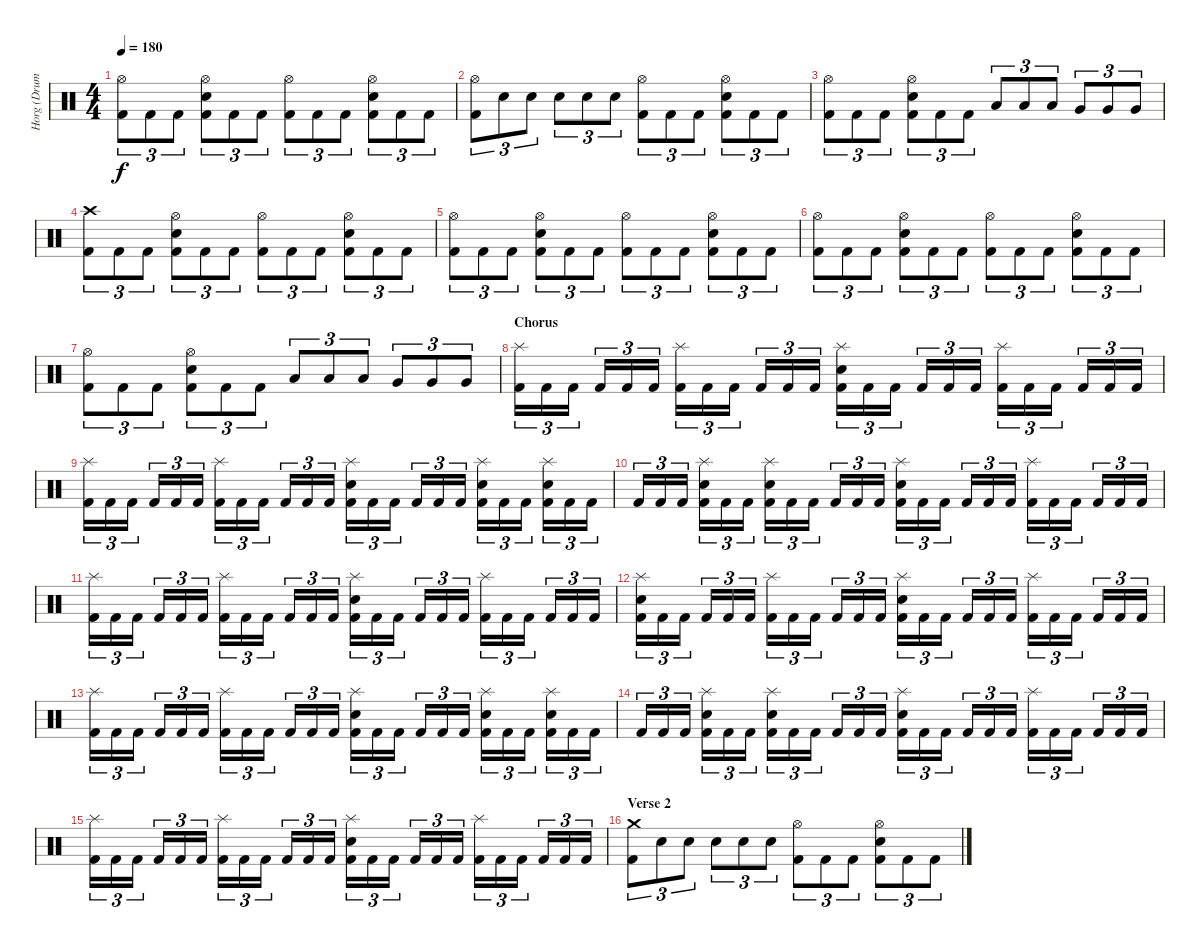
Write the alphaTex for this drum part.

\track ("Horg (Drums)" "Horg (Drum") {instrument percussion}
\staff {score}
\articulation defaults
\ts (4 4)
\tempo 180
\clef neutral
\ks c
("Hi-Hat (open)" "Kick (hit) 2").8{tu (3 2) dy f} "Kick (hit) 2".8{tu (3 2)} "Kick (hit) 2".8{tu (3 2)} ("Hi-Hat (open)" "Electric Snare (hit)" "Kick (hit) 2").8{tu (3 2)} "Kick (hit) 2".8{tu (3 2)} "Kick (hit) 2".8{tu (3 2)} ("Hi-Hat (open)" "Kick (hit) 2").8{tu (3 2)} "Kick (hit) 2".8{tu (3 2)} "Kick (hit) 2".8{tu (3 2)} ("Hi-Hat (open)" "Electric Snare (hit)" "Kick (hit) 2").8{tu (3 2)} "Kick (hit) 2".8{tu (3 2)} "Kick (hit) 2".8{tu (3 2)} |
("Hi-Hat (open)" "Kick (hit) 2").8{tu (3 2)} "Electric Snare (hit)".8{tu (3 2)} "Electric Snare (hit)".8{tu (3 2)} "Electric Snare (hit)".8{tu (3 2)} "Electric Snare (hit)".8{tu (3 2)} "Electric Snare (hit)".8{tu (3 2)} ("Hi-Hat (open)" "Kick (hit) 2").8{tu (3 2)} "Kick (hit) 2".8{tu (3 2)} "Kick (hit) 2".8{tu (3 2)} ("Hi-Hat (open)" "Electric Snare (hit)" "Kick (hit) 2").8{tu (3 2)} "Kick (hit) 2".8{tu (3 2)} "Kick (hit) 2".8{tu (3 2)} |
("Hi-Hat (open)" "Kick (hit) 2").8{tu (3 2)} "Kick (hit) 2".8{tu (3 2)} "Kick (hit) 2".8{tu (3 2)} ("Hi-Hat (open)" "Electric Snare (hit)" "Kick (hit) 2").8{tu (3 2)} "Kick (hit) 2".8{tu (3 2)} "Kick (hit) 2".8{tu (3 2)} "Low Tom (hit)".8{tu (3 2)} "Low Tom (hit)".8{tu (3 2)} "Low Tom (hit)".8{tu (3 2)} "Very Low Tom (hit)".8{tu (3 2)} "Very Low Tom (hit)".8{tu (3 2)} "Very Low Tom (hit)".8{tu (3 2)} |
("Crash high (hit)" "Kick (hit) 2").8{tu (3 2)} "Kick (hit) 2".8{tu (3 2)} "Kick (hit) 2".8{tu (3 2)} ("Hi-Hat (open)" "Electric Snare (hit)" "Kick (hit) 2").8{tu (3 2)} "Kick (hit) 2".8{tu (3 2)} "Kick (hit) 2".8{tu (3 2)} ("Hi-Hat (open)" "Kick (hit) 2").8{tu (3 2)} "Kick (hit) 2".8{tu (3 2)} "Kick (hit) 2".8{tu (3 2)} ("Hi-Hat (open)" "Electric Snare (hit)" "Kick (hit) 2").8{tu (3 2)} "Kick (hit) 2".8{tu (3 2)} "Kick (hit) 2".8{tu (3 2)} |
("Hi-Hat (open)" "Kick (hit) 2").8{tu (3 2)} "Kick (hit) 2".8{tu (3 2)} "Kick (hit) 2".8{tu (3 2)} ("Hi-Hat (open)" "Electric Snare (hit)" "Kick (hit) 2").8{tu (3 2)} "Kick (hit) 2".8{tu (3 2)} "Kick (hit) 2".8{tu (3 2)} ("Hi-Hat (open)" "Kick (hit) 2").8{tu (3 2)} "Kick (hit) 2".8{tu (3 2)} "Kick (hit) 2".8{tu (3 2)} ("Hi-Hat (open)" "Electric Snare (hit)" "Kick (hit) 2").8{tu (3 2)} "Kick (hit) 2".8{tu (3 2)} "Kick (hit) 2".8{tu (3 2)} |
("Hi-Hat (open)" "Kick (hit) 2").8{tu (3 2)} "Kick (hit) 2".8{tu (3 2)} "Kick (hit) 2".8{tu (3 2)} ("Hi-Hat (open)" "Electric Snare (hit)" "Kick (hit) 2").8{tu (3 2)} "Kick (hit) 2".8{tu (3 2)} "Kick (hit) 2".8{tu (3 2)} ("Hi-Hat (open)" "Kick (hit) 2").8{tu (3 2)} "Kick (hit) 2".8{tu (3 2)} "Kick (hit) 2".8{tu (3 2)} ("Hi-Hat (open)" "Electric Snare (hit)" "Kick (hit) 2").8{tu (3 2)} "Kick (hit) 2".8{tu (3 2)} "Kick (hit) 2".8{tu (3 2)} |
("Hi-Hat (open)" "Kick (hit) 2").8{tu (3 2)} "Kick (hit) 2".8{tu (3 2)} "Kick (hit) 2".8{tu (3 2)} ("Hi-Hat (open)" "Electric Snare (hit)" "Kick (hit) 2").8{tu (3 2)} "Kick (hit) 2".8{tu (3 2)} "Kick (hit) 2".8{tu (3 2)} "Low Tom (hit)".8{tu (3 2)} "Low Tom (hit)".8{tu (3 2)} "Low Tom (hit)".8{tu (3 2)} "Very Low Tom (hit)".8{tu (3 2)} "Very Low Tom (hit)".8{tu (3 2)} "Very Low Tom (hit)".8{tu (3 2)} |
\section ("" "Chorus")
("Splash (hit)" "Kick (hit) 2").16{tu (3 2)} "Kick (hit) 2".16{tu (3 2)} "Kick (hit) 2".16{tu (3 2)} "Kick (hit) 2".16{tu (3 2)} "Kick (hit) 2".16{tu (3 2)} "Kick (hit) 2".16{tu (3 2)} ("Splash (hit)" "Kick (hit) 2").16{tu (3 2)} "Kick (hit) 2".16{tu (3 2)} "Kick (hit) 2".16{tu (3 2)} "Kick (hit) 2".16{tu (3 2)} "Kick (hit) 2".16{tu (3 2)} "Kick (hit) 2".16{tu (3 2)} ("Splash (hit)" "Electric Snare (hit)" "Kick (hit) 2").16{tu (3 2)} "Kick (hit) 2".16{tu (3 2)} "Kick (hit) 2".16{tu (3 2)} "Kick (hit) 2".16{tu (3 2)} "Kick (hit) 2".16{tu (3 2)} "Kick (hit) 2".16{tu (3 2)} ("Splash (hit)" "Kick (hit) 2").16{tu (3 2)} "Kick (hit) 2".16{tu (3 2)} "Kick (hit) 2".16{tu (3 2)} "Kick (hit) 2".16{tu (3 2)} "Kick (hit) 2".16{tu (3 2)} "Kick (hit) 2".16{tu (3 2)} |
("Splash (hit)" "Kick (hit) 2").16{tu (3 2)} "Kick (hit) 2".16{tu (3 2)} "Kick (hit) 2".16{tu (3 2)} "Kick (hit) 2".16{tu (3 2)} "Kick (hit) 2".16{tu (3 2)} "Kick (hit) 2".16{tu (3 2)} ("Splash (hit)" "Kick (hit) 2").16{tu (3 2)} "Kick (hit) 2".16{tu (3 2)} "Kick (hit) 2".16{tu (3 2)} "Kick (hit) 2".16{tu (3 2)} "Kick (hit) 2".16{tu (3 2)} "Kick (hit) 2".16{tu (3 2)} ("Splash (hit)" "Electric Snare (hit)" "Kick (hit) 2").16{tu (3 2)} "Kick (hit) 2".16{tu (3 2)} "Kick (hit) 2".16{tu (3 2)} "Kick (hit) 2".16{tu (3 2)} "Kick (hit) 2".16{tu (3 2)} "Kick (hit) 2".16{tu (3 2)} ("Splash (hit)" "Electric Snare (hit)" "Kick (hit) 2").16{tu (3 2)} "Kick (hit) 2".16{tu (3 2)} "Kick (hit) 2".16{tu (3 2)} ("Splash (hit)" "Electric Snare (hit)" "Kick (hit) 2").16{tu (3 2)} "Kick (hit) 2".16{tu (3 2)} "Kick (hit) 2".16{tu (3 2)} |
"Kick (hit) 2".16{tu (3 2)} "Kick (hit) 2".16{tu (3 2)} "Kick (hit) 2".16{tu (3 2)} ("Splash (hit)" "Electric Snare (hit)" "Kick (hit) 2").16{tu (3 2)} "Kick (hit) 2".16{tu (3 2)} "Kick (hit) 2".16{tu (3 2)} ("Splash (hit)" "Electric Snare (hit)" "Kick (hit) 2").16{tu (3 2)} "Kick (hit) 2".16{tu (3 2)} "Kick (hit) 2".16{tu (3 2)} "Kick (hit) 2".16{tu (3 2)} "Kick (hit) 2".16{tu (3 2)} "Kick (hit) 2".16{tu (3 2)} ("Splash (hit)" "Electric Snare (hit)" "Kick (hit) 2").16{tu (3 2)} "Kick (hit) 2".16{tu (3 2)} "Kick (hit) 2".16{tu (3 2)} "Kick (hit) 2".16{tu (3 2)} "Kick (hit) 2".16{tu (3 2)} "Kick (hit) 2".16{tu (3 2)} ("Splash (hit)" "Kick (hit) 2").16{tu (3 2)} "Kick (hit) 2".16{tu (3 2)} "Kick (hit) 2".16{tu (3 2)} "Kick (hit) 2".16{tu (3 2)} "Kick (hit) 2".16{tu (3 2)} "Kick (hit) 2".16{tu (3 2)} |
("Splash (hit)" "Kick (hit) 2").16{tu (3 2)} "Kick (hit) 2".16{tu (3 2)} "Kick (hit) 2".16{tu (3 2)} "Kick (hit) 2".16{tu (3 2)} "Kick (hit) 2".16{tu (3 2)} "Kick (hit) 2".16{tu (3 2)} ("Splash (hit)" "Kick (hit) 2").16{tu (3 2)} "Kick (hit) 2".16{tu (3 2)} "Kick (hit) 2".16{tu (3 2)} "Kick (hit) 2".16{tu (3 2)} "Kick (hit) 2".16{tu (3 2)} "Kick (hit) 2".16{tu (3 2)} ("Splash (hit)" "Electric Snare (hit)" "Kick (hit) 2").16{tu (3 2)} "Kick (hit) 2".16{tu (3 2)} "Kick (hit) 2".16{tu (3 2)} "Kick (hit) 2".16{tu (3 2)} "Kick (hit) 2".16{tu (3 2)} "Kick (hit) 2".16{tu (3 2)} ("Splash (hit)" "Kick (hit) 2").16{tu (3 2)} "Kick (hit) 2".16{tu (3 2)} "Kick (hit) 2".16{tu (3 2)} "Kick (hit) 2".16{tu (3 2)} "Kick (hit) 2".16{tu (3 2)} "Kick (hit) 2".16{tu (3 2)} |
("Splash (hit)" "Electric Snare (hit)" "Kick (hit) 2").16{tu (3 2)} "Kick (hit) 2".16{tu (3 2)} "Kick (hit) 2".16{tu (3 2)} "Kick (hit) 2".16{tu (3 2)} "Kick (hit) 2".16{tu (3 2)} "Kick (hit) 2".16{tu (3 2)} ("Splash (hit)" "Kick (hit) 2").16{tu (3 2)} "Kick (hit) 2".16{tu (3 2)} "Kick (hit) 2".16{tu (3 2)} "Kick (hit) 2".16{tu (3 2)} "Kick (hit) 2".16{tu (3 2)} "Kick (hit) 2".16{tu (3 2)} ("Splash (hit)" "Electric Snare (hit)" "Kick (hit) 2").16{tu (3 2)} "Kick (hit) 2".16{tu (3 2)} "Kick (hit) 2".16{tu (3 2)} "Kick (hit) 2".16{tu (3 2)} "Kick (hit) 2".16{tu (3 2)} "Kick (hit) 2".16{tu (3 2)} ("Splash (hit)" "Kick (hit) 2").16{tu (3 2)} "Kick (hit) 2".16{tu (3 2)} "Kick (hit) 2".16{tu (3 2)} "Kick (hit) 2".16{tu (3 2)} "Kick (hit) 2".16{tu (3 2)} "Kick (hit) 2".16{tu (3 2)} |
("Splash (hit)" "Kick (hit) 2").16{tu (3 2)} "Kick (hit) 2".16{tu (3 2)} "Kick (hit) 2".16{tu (3 2)} "Kick (hit) 2".16{tu (3 2)} "Kick (hit) 2".16{tu (3 2)} "Kick (hit) 2".16{tu (3 2)} ("Splash (hit)" "Kick (hit) 2").16{tu (3 2)} "Kick (hit) 2".16{tu (3 2)} "Kick (hit) 2".16{tu (3 2)} "Kick (hit) 2".16{tu (3 2)} "Kick (hit) 2".16{tu (3 2)} "Kick (hit) 2".16{tu (3 2)} ("Splash (hit)" "Electric Snare (hit)" "Kick (hit) 2").16{tu (3 2)} "Kick (hit) 2".16{tu (3 2)} "Kick (hit) 2".16{tu (3 2)} "Kick (hit) 2".16{tu (3 2)} "Kick (hit) 2".16{tu (3 2)} "Kick (hit) 2".16{tu (3 2)} ("Splash (hit)" "Electric Snare (hit)" "Kick (hit) 2").16{tu (3 2)} "Kick (hit) 2".16{tu (3 2)} "Kick (hit) 2".16{tu (3 2)} ("Splash (hit)" "Electric Snare (hit)" "Kick (hit) 2").16{tu (3 2)} "Kick (hit) 2".16{tu (3 2)} "Kick (hit) 2".16{tu (3 2)} |
"Kick (hit) 2".16{tu (3 2)} "Kick (hit) 2".16{tu (3 2)} "Kick (hit) 2".16{tu (3 2)} ("Splash (hit)" "Electric Snare (hit)" "Kick (hit) 2").16{tu (3 2)} "Kick (hit) 2".16{tu (3 2)} "Kick (hit) 2".16{tu (3 2)} ("Splash (hit)" "Electric Snare (hit)" "Kick (hit) 2").16{tu (3 2)} "Kick (hit) 2".16{tu (3 2)} "Kick (hit) 2".16{tu (3 2)} "Kick (hit) 2".16{tu (3 2)} "Kick (hit) 2".16{tu (3 2)} "Kick (hit) 2".16{tu (3 2)} ("Splash (hit)" "Electric Snare (hit)" "Kick (hit) 2").16{tu (3 2)} "Kick (hit) 2".16{tu (3 2)} "Kick (hit) 2".16{tu (3 2)} "Kick (hit) 2".16{tu (3 2)} "Kick (hit) 2".16{tu (3 2)} "Kick (hit) 2".16{tu (3 2)} ("Splash (hit)" "Kick (hit) 2").16{tu (3 2)} "Kick (hit) 2".16{tu (3 2)} "Kick (hit) 2".16{tu (3 2)} "Kick (hit) 2".16{tu (3 2)} "Kick (hit) 2".16{tu (3 2)} "Kick (hit) 2".16{tu (3 2)} |
("Splash (hit)" "Kick (hit) 2").16{tu (3 2)} "Kick (hit) 2".16{tu (3 2)} "Kick (hit) 2".16{tu (3 2)} "Kick (hit) 2".16{tu (3 2)} "Kick (hit) 2".16{tu (3 2)} "Kick (hit) 2".16{tu (3 2)} ("Splash (hit)" "Kick (hit) 2").16{tu (3 2)} "Kick (hit) 2".16{tu (3 2)} "Kick (hit) 2".16{tu (3 2)} "Kick (hit) 2".16{tu (3 2)} "Kick (hit) 2".16{tu (3 2)} "Kick (hit) 2".16{tu (3 2)} ("Splash (hit)" "Electric Snare (hit)" "Kick (hit) 2").16{tu (3 2)} "Kick (hit) 2".16{tu (3 2)} "Kick (hit) 2".16{tu (3 2)} "Kick (hit) 2".16{tu (3 2)} "Kick (hit) 2".16{tu (3 2)} "Kick (hit) 2".16{tu (3 2)} ("Splash (hit)" "Kick (hit) 2").16{tu (3 2)} "Kick (hit) 2".16{tu (3 2)} "Kick (hit) 2".16{tu (3 2)} "Kick (hit) 2".16{tu (3 2)} "Kick (hit) 2".16{tu (3 2)} "Kick (hit) 2".16{tu (3 2)} |
\section ("" "Verse 2")
("Crash medium (hit)" "Kick (hit) 2").8{tu (3 2)} "Electric Snare (hit)".8{tu (3 2)} "Electric Snare (hit)".8{tu (3 2)} "Electric Snare (hit)".8{tu (3 2)} "Electric Snare (hit)".8{tu (3 2)} "Electric Snare (hit)".8{tu (3 2)} ("Hi-Hat (open)" "Kick (hit) 2").8{tu (3 2)} "Kick (hit) 2".8{tu (3 2)} "Kick (hit) 2".8{tu (3 2)} ("Hi-Hat (open)" "Electric Snare (hit)" "Kick (hit) 2").8{tu (3 2)} "Kick (hit) 2".8{tu (3 2)} "Kick (hit) 2".8{tu (3 2)}
